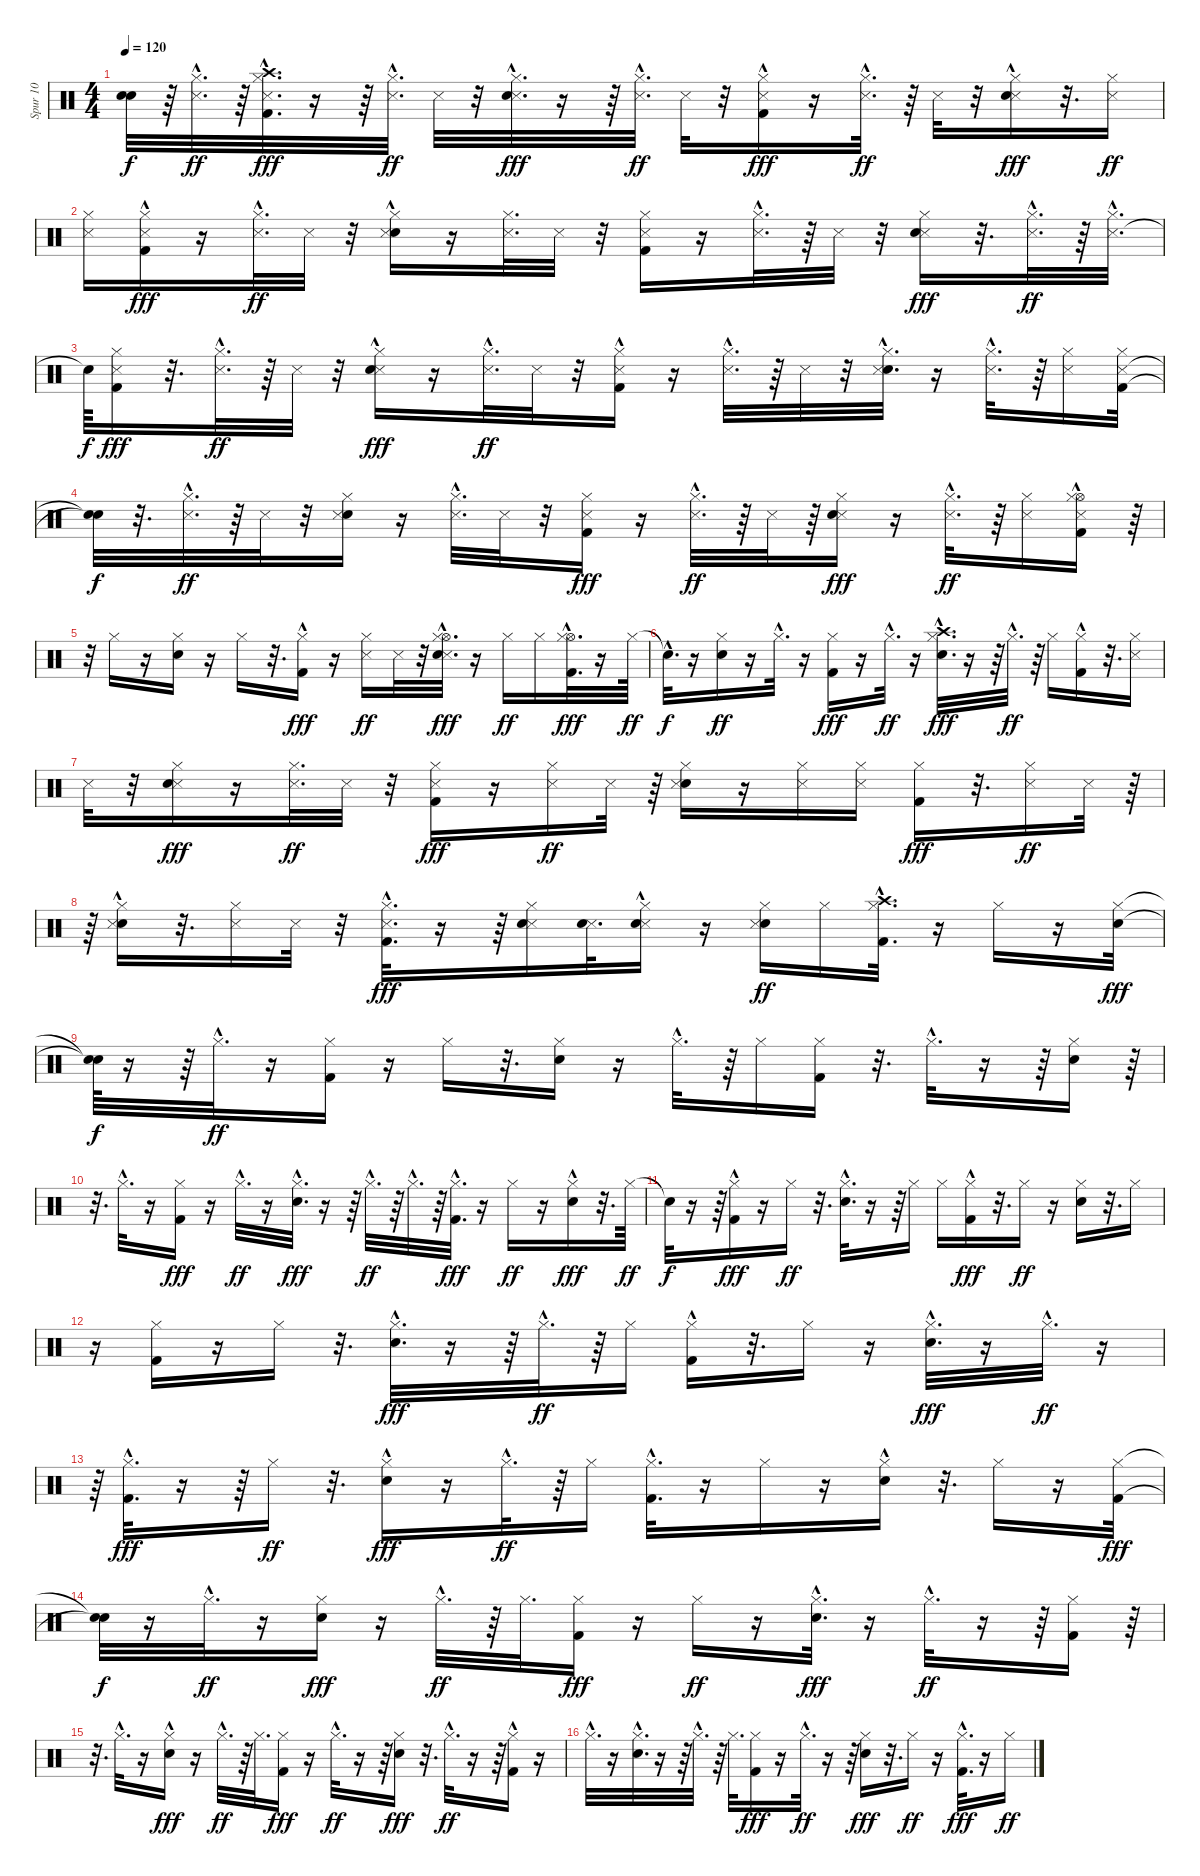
\track ("Spur 10" "Spur 10") {instrument percussion}
\staff {score}
\articulation defaults
\ts (4 4)
\tempo 120
\clef neutral
\ks c
("Snare (hit)"{t} "Snare (hit)"{t}).32{dy f} r.64 ("Snare (side stick) 3" "Hi-Hat (closed)"{hac}).32{d dy ff} r.64 ("Crash high (hit)"{hac} "Snare (side stick) 3" "Hi-Hat (closed)"{hac} "Kick (hit) 2"{hac}).32{d dy fff} r.16 r.64 ("Snare (side stick) 3" "Hi-Hat (closed)"{hac}).32{d dy ff} "Snare (side stick) 3".32 r.32 ("Snare (side stick) 3" "Hi-Hat (closed)"{hac} "Snare (hit) 2"{hac}).32{d dy fff} r.16 r.64 ("Snare (side stick) 3" "Hi-Hat (closed)"{hac}).32{d dy ff} "Snare (side stick) 3".32 r.32 ("Snare (side stick) 3" "Hi-Hat (closed)"{hac} "Kick (hit) 2").16{dy fff} r.16 ("Snare (side stick) 3" "Hi-Hat (closed)"{hac}).32{d dy ff} r.64 "Snare (side stick) 3".32 r.32 ("Snare (side stick) 3" "Hi-Hat (closed)"{hac} "Snare (hit) 2").16{dy fff} r.32{d} ("Snare (side stick) 3" "Hi-Hat (closed)").16{dy ff} |
("Snare (side stick) 3" "Hi-Hat (closed)").16 ("Snare (side stick) 3" "Hi-Hat (closed)" "Kick (hit) 2"{hac}).16{dy fff} r.16 ("Snare (side stick) 3" "Hi-Hat (closed)"{hac}).32{d dy ff} "Snare (side stick) 3".32 r.32 ("Snare (hit) 2"{hac} "Snare (side stick) 3" "Hi-Hat (closed)").16 r.16 ("Snare (side stick) 3" "Hi-Hat (closed)").32{d} "Snare (side stick) 3".32 r.32 ("Hi-Hat (closed)" "Kick (hit) 2" "Snare (side stick) 3").16 r.16 ("Snare (side stick) 3" "Hi-Hat (closed)"{hac}).32{d} r.64 "Snare (side stick) 3".32 r.32 ("Snare (side stick) 3" "Hi-Hat (closed)" "Snare (hit) 2").16{dy fff} r.32{d} ("Snare (side stick) 3" "Hi-Hat (closed)"{hac}).32{d dy ff} r.64 ("Snare (side stick) 3" "Hi-Hat (closed)"{hac}).32{d} |
"Snare (hit)"{t}.64{dy f} ("Snare (side stick) 3" "Hi-Hat (closed)" "Kick (hit) 2").16{dy fff} r.32{d} ("Snare (side stick) 3" "Hi-Hat (closed)"{hac}).32{d dy ff} r.64 "Snare (side stick) 3".32 r.32 ("Snare (side stick) 3" "Hi-Hat (closed)"{hac} "Snare (hit) 2").16{dy fff} r.16 ("Snare (side stick) 3" "Hi-Hat (closed)"{hac}).32{d dy ff} "Snare (side stick) 3".32 r.32 ("Hi-Hat (closed)"{hac} "Kick (hit) 2" "Snare (side stick) 3").16 r.16 ("Hi-Hat (closed)"{hac} "Snare (side stick) 3").32{d} r.64 "Snare (side stick) 3".32 r.32 ("Hi-Hat (closed)"{hac} "Snare (hit) 2"{hac} "Snare (side stick) 3").32{d} r.16 ("Snare (side stick) 3" "Hi-Hat (closed)"{hac}).32{d} r.64 ("Snare (side stick) 3" "Hi-Hat (closed)").16 ("Kick (hit) 2" "Snare (side stick) 3" "Hi-Hat (closed)").32 |
("Snare (hit)"{t} "Snare (hit)"{t}).32{dy f} r.32{d} ("Snare (side stick) 3" "Hi-Hat (closed)"{hac}).32{d dy ff} r.64 "Snare (side stick) 3".32 r.32 ("Snare (hit) 2" "Snare (side stick) 3" "Hi-Hat (closed)").16 r.16 ("Hi-Hat (closed)"{hac} "Snare (side stick) 3").32{d} "Snare (side stick) 3".32 r.32 ("Snare (side stick) 3" "Hi-Hat (closed)" "Kick (hit) 2").16{dy fff} r.16 ("Hi-Hat (closed)"{hac} "Snare (side stick) 3").32{d dy ff} r.64 "Snare (side stick) 3".32 r.64 ("Snare (side stick) 3" "Hi-Hat (closed)" "Snare (hit) 2").16{dy fff} r.16 ("Hi-Hat (closed)"{hac} "Snare (side stick) 3").32{d dy ff} r.64 ("Snare (side stick) 3" "Hi-Hat (closed)").16 ("Kick (hit) 2"{hac} "Hi-Hat (open)" "Snare (side stick) 3" "Hi-Hat (closed)"{hac}).16 r.64 |
r.32 "Hi-Hat (closed)".16 r.16 ("Snare (hit) 2" "Hi-Hat (closed)").16 r.16 "Hi-Hat (closed)".16 r.32{d} ("Hi-Hat (closed)"{hac} "Kick (hit) 2").16{dy fff} r.16 ("Snare (side stick) 3" "Hi-Hat (closed)").16{dy ff} "Snare (side stick) 3".32 r.32 ("Hi-Hat (open)"{hac} "Snare (side stick) 3" "Hi-Hat (closed)"{hac} "Snare (hit) 2"{hac}).32{d dy fff} r.16 "Hi-Hat (closed)".16{dy ff} "Hi-Hat (closed)".16 ("Hi-Hat (open)"{hac} "Hi-Hat (closed)"{hac} "Kick (hit) 2"{hac}).32{d dy fff} r.16 "Hi-Hat (closed)".64{dy ff} |
"Snare (hit)"{hac t}.32{d dy f} r.16 ("Snare (hit) 2" "Hi-Hat (closed)").16{dy ff} r.16 "Hi-Hat (closed)"{hac}.32{d} r.16 ("Hi-Hat (closed)" "Kick (hit) 2").16{dy fff} r.16 "Hi-Hat (closed)"{hac}.32{d dy ff} r.16 ("Crash high (hit)"{hac} "Hi-Hat (closed)"{hac} "Snare (hit) 2"{hac}).32{d dy fff} r.16 r.64 "Hi-Hat (closed)"{hac}.32{d dy ff} r.64 "Hi-Hat (closed)".16 ("Kick (hit) 2" "Hi-Hat (closed)"{hac}).16 r.32{d} ("Hi-Hat (closed)" "Snare (side stick) 3").16 |
"Snare (side stick) 3".32 r.32 ("Snare (side stick) 3" "Hi-Hat (closed)" "Snare (hit) 2").16{dy fff} r.16 ("Snare (side stick) 3" "Hi-Hat (closed)").32{d dy ff} "Snare (side stick) 3".32 r.32 ("Snare (side stick) 3" "Hi-Hat (closed)" "Kick (hit) 2").16{dy fff} r.16 ("Snare (side stick) 3" "Hi-Hat (closed)").16{dy ff} "Snare (side stick) 3".32 r.64 ("Snare (hit) 2" "Snare (side stick) 3" "Hi-Hat (closed)").16 r.16 ("Snare (side stick) 3" "Hi-Hat (closed)").16 ("Hi-Hat (closed)" "Snare (side stick) 3").16 ("Hi-Hat (closed)" "Kick (hit) 2").16{dy fff} r.32{d} ("Hi-Hat (closed)" "Snare (side stick) 3").16{dy ff} "Snare (side stick) 3".32 r.64 |
r.64 ("Snare (hit) 2"{hac} "Snare (side stick) 3" "Hi-Hat (closed)").16 r.32{d} ("Hi-Hat (closed)" "Snare (side stick) 3").16 "Snare (side stick) 3".32 r.32 ("Snare (side stick) 3" "Hi-Hat (closed)"{hac} "Kick (hit) 2"{hac}).32{d dy fff} r.16 r.64 ("Snare (side stick) 3" "Hi-Hat (closed)" "Snare (hit) 2").16 ("Snare (side stick) 3" "Snare (hit) 2").32{d} ("Snare (side stick) 3" "Hi-Hat (closed)"{hac} "Snare (hit) 2").16 r.16 ("Hi-Hat (closed)" "Snare (hit) 2" "Snare (side stick) 3").16{dy ff} "Hi-Hat (closed)".16 ("Kick (hit) 2"{hac} "Crash high (hit)"{hac} "Hi-Hat (closed)"{hac}).32{d} r.16 "Hi-Hat (closed)".16 r.16 ("Hi-Hat (closed)" "Snare (hit) 2").32{dy fff} |
("Snare (hit)"{t} "Snare (hit)"{t}).64{dy f} r.16 r.64 "Hi-Hat (closed)"{hac}.32{d dy ff} r.16 ("Kick (hit) 2" "Hi-Hat (closed)").16 r.16 "Hi-Hat (closed)".16 r.32{d} ("Snare (hit) 2" "Hi-Hat (closed)").16 r.16 "Hi-Hat (closed)"{hac}.32{d} r.64 "Hi-Hat (closed)".16 ("Kick (hit) 2" "Hi-Hat (closed)").16 r.32{d} "Hi-Hat (closed)"{hac}.32{d} r.16 r.64 ("Snare (hit) 2" "Hi-Hat (closed)").16 r.64 |
r.32{d} "Hi-Hat (closed)"{hac}.32{d} r.16 ("Hi-Hat (closed)" "Kick (hit) 2").16{dy fff} r.16 "Hi-Hat (closed)"{hac}.32{d dy ff} r.16 ("Hi-Hat (closed)"{hac} "Snare (hit) 2"{hac}).32{d dy fff} r.16 r.64 "Hi-Hat (closed)"{hac}.32{d dy ff} r.64 "Hi-Hat (closed)"{hac}.32{d} r.64 ("Hi-Hat (closed)"{hac} "Kick (hit) 2"{hac}).32{d dy fff} r.16 "Hi-Hat (closed)".16{dy ff} r.16 ("Hi-Hat (closed)"{hac} "Snare (hit) 2").16{dy fff} r.32{d} "Hi-Hat (closed)".64{dy ff} |
"Snare (hit)"{t}.32{dy f} r.16 r.64 ("Hi-Hat (closed)"{hac} "Kick (hit) 2").16{dy fff} r.16 "Hi-Hat (closed)".16{dy ff} r.32{d} ("Snare (hit) 2"{hac} "Hi-Hat (closed)"{hac}).32{d} r.16 r.64 "Hi-Hat (closed)".16 "Hi-Hat (closed)".16 ("Hi-Hat (closed)"{hac} "Kick (hit) 2").16{dy fff} r.32{d} "Hi-Hat (closed)".16{dy ff} r.16 ("Snare (hit) 2" "Hi-Hat (closed)").16 r.32{d} "Hi-Hat (closed)".16 |
r.16 ("Kick (hit) 2" "Hi-Hat (closed)").16 r.16 "Hi-Hat (closed)".16 r.32{d} ("Hi-Hat (closed)"{hac} "Snare (hit) 2"{hac}).32{d dy fff} r.16 r.64 "Hi-Hat (closed)"{hac}.32{d dy ff} r.64 "Hi-Hat (closed)".16 ("Kick (hit) 2"{hac} "Hi-Hat (closed)").16 r.32{d} "Hi-Hat (closed)".16 r.16 ("Hi-Hat (closed)"{hac} "Snare (hit) 2"{hac}).32{d dy fff} r.16 "Hi-Hat (closed)"{hac}.32{d dy ff} r.16 |
r.64 ("Hi-Hat (closed)"{hac} "Kick (hit) 2"{hac}).32{d dy fff} r.16 r.64 "Hi-Hat (closed)".16{dy ff} r.32{d} ("Hi-Hat (closed)"{hac} "Snare (hit) 2").16{dy fff} r.16 "Hi-Hat (closed)"{hac}.32{d dy ff} r.64 "Hi-Hat (closed)".16 ("Kick (hit) 2"{hac} "Hi-Hat (closed)"{hac}).32{d} r.16 "Hi-Hat (closed)".16 r.16 ("Snare (hit) 2"{hac} "Hi-Hat (closed)").16 r.32{d} "Hi-Hat (closed)".16 r.16 ("Hi-Hat (closed)" "Kick (hit) 2").32{dy fff} |
("Snare (hit)"{t} "Snare (hit)"{t}).32{dy f} r.16 "Hi-Hat (closed)"{hac}.32{d dy ff} r.16 ("Hi-Hat (closed)" "Snare (hit) 2").16{dy fff} r.16 "Hi-Hat (closed)"{hac}.32{d dy ff} r.64 "Hi-Hat (closed)".32{d} ("Hi-Hat (closed)" "Kick (hit) 2").16{dy fff} r.16 "Hi-Hat (closed)".16{dy ff} r.16 ("Hi-Hat (closed)"{hac} "Snare (hit) 2"{hac}).32{d dy fff} r.16 "Hi-Hat (closed)"{hac}.32{d dy ff} r.16 r.64 ("Kick (hit) 2" "Hi-Hat (closed)").16 r.64 |
r.32{d} "Hi-Hat (closed)"{hac}.32{d} r.16 ("Hi-Hat (closed)" "Snare (hit) 2"{hac}).16{dy fff} r.16 "Hi-Hat (closed)"{hac}.32{d dy ff} r.64 "Hi-Hat (closed)".32{d} ("Hi-Hat (closed)" "Kick (hit) 2").16{dy fff} r.16 "Hi-Hat (closed)"{hac}.32{d dy ff} r.16 r.64 ("Hi-Hat (closed)" "Snare (hit) 2").16{dy fff} r.32{d} "Hi-Hat (closed)"{hac}.32{d dy ff} r.16 r.64 ("Kick (hit) 2"{hac} "Hi-Hat (closed)").16 r.16 |
"Hi-Hat (closed)"{hac}.32{d} r.16 ("Snare (hit) 2"{hac} "Hi-Hat (closed)"{hac}).32{d} r.16 r.64 "Hi-Hat (closed)"{hac}.32{d} r.64 "Hi-Hat (closed)".32{d} ("Hi-Hat (closed)" "Kick (hit) 2").16{dy fff} r.16 "Hi-Hat (closed)"{hac}.32{d dy ff} r.16 r.64 ("Hi-Hat (closed)" "Snare (hit) 2").16{dy fff} r.32{d} "Hi-Hat (closed)".16{dy ff} r.16 ("Hi-Hat (closed)"{hac} "Kick (hit) 2"{hac}).32{d dy fff} r.16 "Hi-Hat (closed)".16{dy ff}
